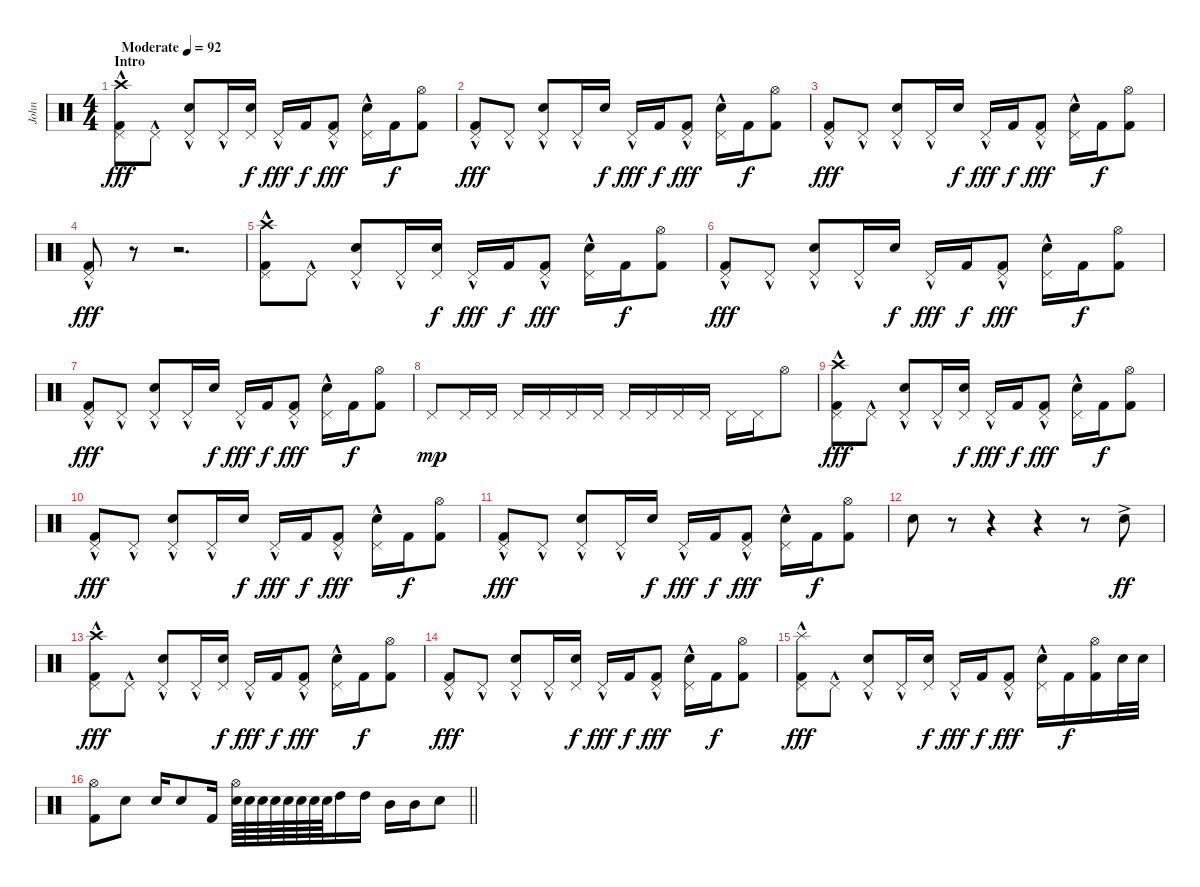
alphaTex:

\track ("John" "John") {instrument percussion}
\staff {score}
\articulation defaults
\ts (4 4)
\section ("" "Intro")
\tempo (92 "Moderate")
\clef neutral
\ks c
("Crash high (hit)" "Kick (hit) 2" "Pedal Hi-Hat (hit)"{hac}).8{dy fff} "Pedal Hi-Hat (hit)"{hac}.8 ("Snare (hit) 2" "Pedal Hi-Hat (hit)"{hac}).8 "Pedal Hi-Hat (hit)"{hac}.16 ("Snare (hit) 2" "Pedal Hi-Hat (hit)").16{dy f} "Pedal Hi-Hat (hit)"{hac}.16{dy fff} "Kick (hit) 2".16{dy f} ("Kick (hit) 2" "Pedal Hi-Hat (hit)"{hac}).8{dy fff} ("Snare (hit) 2" "Pedal Hi-Hat (hit)"{hac}).16 "Kick (hit) 2".16{dy f} ("Kick (hit) 2" "Hi-Hat (open)").8 |
("Kick (hit) 2" "Pedal Hi-Hat (hit)"{hac}).8{dy fff} "Pedal Hi-Hat (hit)"{hac}.8 ("Snare (hit) 2" "Pedal Hi-Hat (hit)"{hac}).8 "Pedal Hi-Hat (hit)"{hac}.16 "Snare (hit) 2".16{dy f} "Pedal Hi-Hat (hit)"{hac}.16{dy fff} "Kick (hit) 2".16{dy f} ("Kick (hit) 2" "Pedal Hi-Hat (hit)"{hac}).8{dy fff} ("Snare (hit) 2" "Pedal Hi-Hat (hit)"{hac}).16 "Kick (hit) 2".16{dy f} ("Kick (hit) 2" "Hi-Hat (open)").8 |
("Kick (hit) 2" "Pedal Hi-Hat (hit)"{hac}).8{dy fff} "Pedal Hi-Hat (hit)"{hac}.8 ("Snare (hit) 2" "Pedal Hi-Hat (hit)"{hac}).8 "Pedal Hi-Hat (hit)"{hac}.16 "Snare (hit) 2".16{dy f} "Pedal Hi-Hat (hit)"{hac}.16{dy fff} "Kick (hit) 2".16{dy f} ("Kick (hit) 2" "Pedal Hi-Hat (hit)"{hac}).8{dy fff} ("Snare (hit) 2" "Pedal Hi-Hat (hit)"{hac}).16 "Kick (hit) 2".16{dy f} ("Kick (hit) 2" "Hi-Hat (open)").8 |
("Kick (hit) 2" "Pedal Hi-Hat (hit)"{hac}).8{dy fff} r.8 r.2{d} |
("Crash high (hit)" "Kick (hit) 2" "Pedal Hi-Hat (hit)"{hac}).8 "Pedal Hi-Hat (hit)"{hac}.8 ("Snare (hit) 2" "Pedal Hi-Hat (hit)"{hac}).8 "Pedal Hi-Hat (hit)"{hac}.16 ("Snare (hit) 2" "Pedal Hi-Hat (hit)").16{dy f} "Pedal Hi-Hat (hit)"{hac}.16{dy fff} "Kick (hit) 2".16{dy f} ("Kick (hit) 2" "Pedal Hi-Hat (hit)"{hac}).8{dy fff} ("Snare (hit) 2" "Pedal Hi-Hat (hit)"{hac}).16 "Kick (hit) 2".16{dy f} ("Kick (hit) 2" "Hi-Hat (open)").8 |
("Kick (hit) 2" "Pedal Hi-Hat (hit)"{hac}).8{dy fff} "Pedal Hi-Hat (hit)"{hac}.8 ("Snare (hit) 2" "Pedal Hi-Hat (hit)"{hac}).8 "Pedal Hi-Hat (hit)"{hac}.16 "Snare (hit) 2".16{dy f} "Pedal Hi-Hat (hit)"{hac}.16{dy fff} "Kick (hit) 2".16{dy f} ("Kick (hit) 2" "Pedal Hi-Hat (hit)"{hac}).8{dy fff} ("Snare (hit) 2" "Pedal Hi-Hat (hit)"{hac}).16 "Kick (hit) 2".16{dy f} ("Kick (hit) 2" "Hi-Hat (open)").8 |
("Kick (hit) 2" "Pedal Hi-Hat (hit)"{hac}).8{dy fff} "Pedal Hi-Hat (hit)"{hac}.8 ("Snare (hit) 2" "Pedal Hi-Hat (hit)"{hac}).8 "Pedal Hi-Hat (hit)"{hac}.16 "Snare (hit) 2".16{dy f} "Pedal Hi-Hat (hit)"{hac}.16{dy fff} "Kick (hit) 2".16{dy f} ("Kick (hit) 2" "Pedal Hi-Hat (hit)"{hac}).8{dy fff} ("Snare (hit) 2" "Pedal Hi-Hat (hit)"{hac}).16 "Kick (hit) 2".16{dy f} ("Kick (hit) 2" "Hi-Hat (open)").8 |
"Pedal Hi-Hat (hit)".8{dy mp} "Pedal Hi-Hat (hit)".16 "Pedal Hi-Hat (hit)".16 "Pedal Hi-Hat (hit)".16 "Pedal Hi-Hat (hit)".16 "Pedal Hi-Hat (hit)".16 "Pedal Hi-Hat (hit)".16 "Pedal Hi-Hat (hit)".16 "Pedal Hi-Hat (hit)".16 "Pedal Hi-Hat (hit)".16 "Pedal Hi-Hat (hit)".16 "Pedal Hi-Hat (hit)".16 "Pedal Hi-Hat (hit)".16 "Hi-Hat (open)".8 |
("Crash high (hit)" "Kick (hit) 2" "Pedal Hi-Hat (hit)"{hac}).8{dy fff} "Pedal Hi-Hat (hit)"{hac}.8 ("Snare (hit) 2" "Pedal Hi-Hat (hit)"{hac}).8 "Pedal Hi-Hat (hit)"{hac}.16 ("Snare (hit) 2" "Pedal Hi-Hat (hit)").16{dy f} "Pedal Hi-Hat (hit)"{hac}.16{dy fff} "Kick (hit) 2".16{dy f} ("Kick (hit) 2" "Pedal Hi-Hat (hit)"{hac}).8{dy fff} ("Snare (hit) 2" "Pedal Hi-Hat (hit)"{hac}).16 "Kick (hit) 2".16{dy f} ("Kick (hit) 2" "Hi-Hat (open)").8 |
("Kick (hit) 2" "Pedal Hi-Hat (hit)"{hac}).8{dy fff} "Pedal Hi-Hat (hit)"{hac}.8 ("Snare (hit) 2" "Pedal Hi-Hat (hit)"{hac}).8 "Pedal Hi-Hat (hit)"{hac}.16 "Snare (hit) 2".16{dy f} "Pedal Hi-Hat (hit)"{hac}.16{dy fff} "Kick (hit) 2".16{dy f} ("Kick (hit) 2" "Pedal Hi-Hat (hit)"{hac}).8{dy fff} ("Snare (hit) 2" "Pedal Hi-Hat (hit)"{hac}).16 "Kick (hit) 2".16{dy f} ("Kick (hit) 2" "Hi-Hat (open)").8 |
("Kick (hit) 2" "Pedal Hi-Hat (hit)"{hac}).8{dy fff} "Pedal Hi-Hat (hit)"{hac}.8 ("Snare (hit) 2" "Pedal Hi-Hat (hit)"{hac}).8 "Pedal Hi-Hat (hit)"{hac}.16 "Snare (hit) 2".16{dy f} "Pedal Hi-Hat (hit)"{hac}.16{dy fff} "Kick (hit) 2".16{dy f} ("Kick (hit) 2" "Pedal Hi-Hat (hit)"{hac}).8{dy fff} ("Snare (hit) 2" "Pedal Hi-Hat (hit)"{hac}).16 "Kick (hit) 2".16{dy f} ("Kick (hit) 2" "Hi-Hat (open)").8 |
"Snare (hit) 2".8 r.8 r.4 r.4 r.8 "Snare (hit) 2"{ac}.8{dy ff} |
("Crash high (hit)" "Kick (hit) 2" "Pedal Hi-Hat (hit)"{hac}).8{dy fff} "Pedal Hi-Hat (hit)"{hac}.8 ("Snare (hit) 2" "Pedal Hi-Hat (hit)"{hac}).8 "Pedal Hi-Hat (hit)"{hac}.16 ("Snare (hit) 2" "Pedal Hi-Hat (hit)").16{dy f} "Pedal Hi-Hat (hit)"{hac}.16{dy fff} "Kick (hit) 2".16{dy f} ("Kick (hit) 2" "Pedal Hi-Hat (hit)"{hac}).8{dy fff} ("Snare (hit) 2" "Pedal Hi-Hat (hit)"{hac}).16 "Kick (hit) 2".16{dy f} ("Kick (hit) 2" "Hi-Hat (open)").8 |
("Kick (hit) 2" "Pedal Hi-Hat (hit)"{hac}).8{dy fff} "Pedal Hi-Hat (hit)"{hac}.8 ("Snare (hit) 2" "Pedal Hi-Hat (hit)"{hac}).8 "Pedal Hi-Hat (hit)"{hac}.16 ("Snare (hit) 2" "Pedal Hi-Hat (hit)").16{dy f} "Pedal Hi-Hat (hit)"{hac}.16{dy fff} "Kick (hit) 2".16{dy f} ("Kick (hit) 2" "Pedal Hi-Hat (hit)"{hac}).8{dy fff} ("Snare (hit) 2" "Pedal Hi-Hat (hit)"{hac}).16 "Kick (hit) 2".16{dy f} ("Kick (hit) 2" "Hi-Hat (open)").8 |
("Splash (hit)" "Kick (hit) 2" "Pedal Hi-Hat (hit)"{hac}).8{dy fff} "Pedal Hi-Hat (hit)"{hac}.8 ("Snare (hit) 2" "Pedal Hi-Hat (hit)"{hac}).8 "Pedal Hi-Hat (hit)"{hac}.16 ("Snare (hit) 2" "Pedal Hi-Hat (hit)").16{dy f} "Pedal Hi-Hat (hit)"{hac}.16{dy fff} "Kick (hit) 2".16{dy f} ("Kick (hit) 2" "Pedal Hi-Hat (hit)"{hac}).8{dy fff} ("Snare (hit) 2" "Pedal Hi-Hat (hit)"{hac}).16 "Kick (hit) 2".16{dy f} ("Kick (hit) 2" "Hi-Hat (open)").16 "Snare (hit) 2".32 "Snare (hit) 2".32 |
\barLineRight lightlight
("Kick (hit) 2" "Hi-Hat (open)").8 "Snare (hit) 2".8 "Snare (hit) 2".16 "Snare (hit) 2".8 "Kick (hit) 2".16 ("Snare (hit) 2" "Hi-Hat (open)").64 "Snare (hit) 2".64 "Snare (hit) 2".64 "Snare (hit) 2".64 "Snare (hit) 2".64 "Snare (hit) 2".64 "Snare (hit) 2".64 "Snare (hit) 2".64 "High Tom (hit)".16 "High Tom (hit)".16 "Mid Tom (hit)".16 "Mid Tom (hit)".16 "Snare (hit) 2".8
